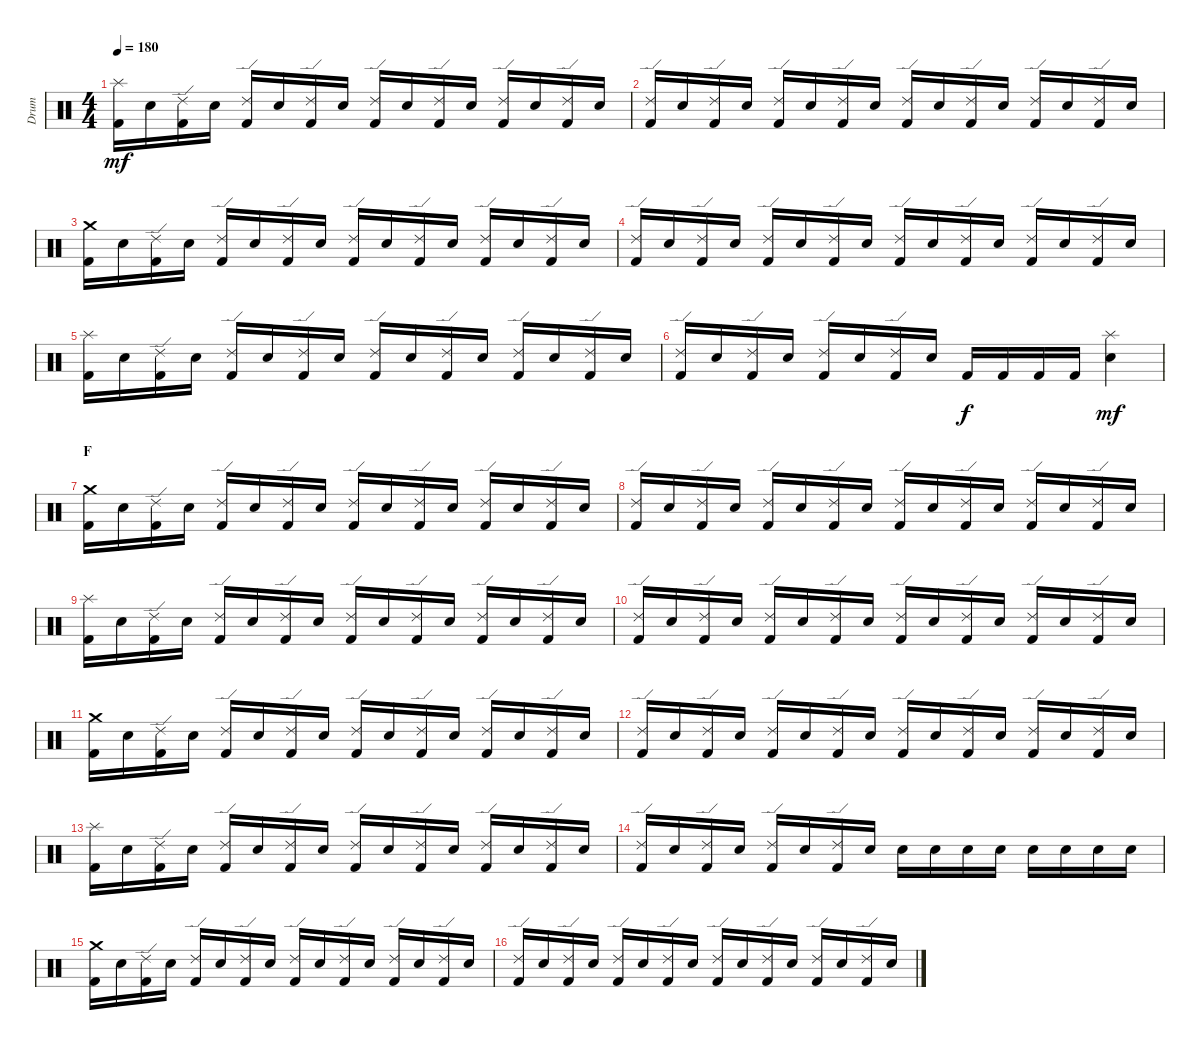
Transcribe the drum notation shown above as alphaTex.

\track ("Drum" "Drum") {instrument percussion}
\staff {score}
\articulation defaults
\ts (4 4)
\tempo 180
\clef neutral
\ks c
("Splash (hit)" "Kick (hit) 2").16{dy mf} "Electric Snare (hit)".16 ("Ride (edge) 2" "Kick (hit) 2").16 "Electric Snare (hit)".16 ("Ride (edge) 2" "Kick (hit) 2").16 "Electric Snare (hit)".16 ("Ride (edge) 2" "Kick (hit) 2").16 "Electric Snare (hit)".16 ("Ride (edge) 2" "Kick (hit) 2").16 "Electric Snare (hit)".16 ("Ride (edge) 2" "Kick (hit) 2").16 "Electric Snare (hit)".16 ("Ride (edge) 2" "Kick (hit) 2").16 "Electric Snare (hit)".16 ("Ride (edge) 2" "Kick (hit) 2").16 "Electric Snare (hit)".16 |
("Ride (edge) 2" "Kick (hit) 2").16 "Electric Snare (hit)".16 ("Ride (edge) 2" "Kick (hit) 2").16 "Electric Snare (hit)".16 ("Ride (edge) 2" "Kick (hit) 2").16 "Electric Snare (hit)".16 ("Ride (edge) 2" "Kick (hit) 2").16 "Electric Snare (hit)".16 ("Ride (edge) 2" "Kick (hit) 2").16 "Electric Snare (hit)".16 ("Ride (edge) 2" "Kick (hit) 2").16 "Electric Snare (hit)".16 ("Ride (edge) 2" "Kick (hit) 2").16 "Electric Snare (hit)".16 ("Ride (edge) 2" "Kick (hit) 2").16 "Electric Snare (hit)".16 |
("Crash medium (hit)" "Kick (hit) 2").16 "Electric Snare (hit)".16 ("Ride (edge) 2" "Kick (hit) 2").16 "Electric Snare (hit)".16 ("Ride (edge) 2" "Kick (hit) 2").16 "Electric Snare (hit)".16 ("Ride (edge) 2" "Kick (hit) 2").16 "Electric Snare (hit)".16 ("Ride (edge) 2" "Kick (hit) 2").16 "Electric Snare (hit)".16 ("Ride (edge) 2" "Kick (hit) 2").16 "Electric Snare (hit)".16 ("Ride (edge) 2" "Kick (hit) 2").16 "Electric Snare (hit)".16 ("Ride (edge) 2" "Kick (hit) 2").16 "Electric Snare (hit)".16 |
("Ride (edge) 2" "Kick (hit) 2").16 "Electric Snare (hit)".16 ("Ride (edge) 2" "Kick (hit) 2").16 "Electric Snare (hit)".16 ("Ride (edge) 2" "Kick (hit) 2").16 "Electric Snare (hit)".16 ("Ride (edge) 2" "Kick (hit) 2").16 "Electric Snare (hit)".16 ("Ride (edge) 2" "Kick (hit) 2").16 "Electric Snare (hit)".16 ("Ride (edge) 2" "Kick (hit) 2").16 "Electric Snare (hit)".16 ("Ride (edge) 2" "Kick (hit) 2").16 "Electric Snare (hit)".16 ("Ride (edge) 2" "Kick (hit) 2").16 "Electric Snare (hit)".16 |
("Splash (hit)" "Kick (hit) 2").16 "Electric Snare (hit)".16 ("Ride (edge) 2" "Kick (hit) 2").16 "Electric Snare (hit)".16 ("Ride (edge) 2" "Kick (hit) 2").16 "Electric Snare (hit)".16 ("Ride (edge) 2" "Kick (hit) 2").16 "Electric Snare (hit)".16 ("Ride (edge) 2" "Kick (hit) 2").16 "Electric Snare (hit)".16 ("Ride (edge) 2" "Kick (hit) 2").16 "Electric Snare (hit)".16 ("Ride (edge) 2" "Kick (hit) 2").16 "Electric Snare (hit)".16 ("Ride (edge) 2" "Kick (hit) 2").16 "Electric Snare (hit)".16 |
("Ride (edge) 2" "Kick (hit) 2").16 "Electric Snare (hit)".16 ("Ride (edge) 2" "Kick (hit) 2").16 "Electric Snare (hit)".16 ("Ride (edge) 2" "Kick (hit) 2").16 "Electric Snare (hit)".16 ("Ride (edge) 2" "Kick (hit) 2").16 "Electric Snare (hit)".16 "Kick (hit) 2".16{dy f} "Kick (hit) 2".16 "Kick (hit) 2".16 "Kick (hit) 2".16 ("Splash (hit)" "Electric Snare (hit)").4{dy mf} |
\section ("" "F")
("Crash medium (hit)" "Kick (hit) 2").16 "Electric Snare (hit)".16 ("Ride (edge) 2" "Kick (hit) 2").16 "Electric Snare (hit)".16 ("Ride (edge) 2" "Kick (hit) 2").16 "Electric Snare (hit)".16 ("Ride (edge) 2" "Kick (hit) 2").16 "Electric Snare (hit)".16 ("Ride (edge) 2" "Kick (hit) 2").16 "Electric Snare (hit)".16 ("Ride (edge) 2" "Kick (hit) 2").16 "Electric Snare (hit)".16 ("Ride (edge) 2" "Kick (hit) 2").16 "Electric Snare (hit)".16 ("Ride (edge) 2" "Kick (hit) 2").16 "Electric Snare (hit)".16 |
("Ride (edge) 2" "Kick (hit) 2").16 "Electric Snare (hit)".16 ("Ride (edge) 2" "Kick (hit) 2").16 "Electric Snare (hit)".16 ("Ride (edge) 2" "Kick (hit) 2").16 "Electric Snare (hit)".16 ("Ride (edge) 2" "Kick (hit) 2").16 "Electric Snare (hit)".16 ("Ride (edge) 2" "Kick (hit) 2").16 "Electric Snare (hit)".16 ("Ride (edge) 2" "Kick (hit) 2").16 "Electric Snare (hit)".16 ("Ride (edge) 2" "Kick (hit) 2").16 "Electric Snare (hit)".16 ("Ride (edge) 2" "Kick (hit) 2").16 "Electric Snare (hit)".16 |
("Splash (hit)" "Kick (hit) 2").16 "Electric Snare (hit)".16 ("Ride (edge) 2" "Kick (hit) 2").16 "Electric Snare (hit)".16 ("Ride (edge) 2" "Kick (hit) 2").16 "Electric Snare (hit)".16 ("Ride (edge) 2" "Kick (hit) 2").16 "Electric Snare (hit)".16 ("Ride (edge) 2" "Kick (hit) 2").16 "Electric Snare (hit)".16 ("Ride (edge) 2" "Kick (hit) 2").16 "Electric Snare (hit)".16 ("Ride (edge) 2" "Kick (hit) 2").16 "Electric Snare (hit)".16 ("Ride (edge) 2" "Kick (hit) 2").16 "Electric Snare (hit)".16 |
("Ride (edge) 2" "Kick (hit) 2").16 "Electric Snare (hit)".16 ("Ride (edge) 2" "Kick (hit) 2").16 "Electric Snare (hit)".16 ("Ride (edge) 2" "Kick (hit) 2").16 "Electric Snare (hit)".16 ("Ride (edge) 2" "Kick (hit) 2").16 "Electric Snare (hit)".16 ("Ride (edge) 2" "Kick (hit) 2").16 "Electric Snare (hit)".16 ("Ride (edge) 2" "Kick (hit) 2").16 "Electric Snare (hit)".16 ("Ride (edge) 2" "Kick (hit) 2").16 "Electric Snare (hit)".16 ("Ride (edge) 2" "Kick (hit) 2").16 "Electric Snare (hit)".16 |
("Crash medium (hit)" "Kick (hit) 2").16 "Electric Snare (hit)".16 ("Ride (edge) 2" "Kick (hit) 2").16 "Electric Snare (hit)".16 ("Ride (edge) 2" "Kick (hit) 2").16 "Electric Snare (hit)".16 ("Ride (edge) 2" "Kick (hit) 2").16 "Electric Snare (hit)".16 ("Ride (edge) 2" "Kick (hit) 2").16 "Electric Snare (hit)".16 ("Ride (edge) 2" "Kick (hit) 2").16 "Electric Snare (hit)".16 ("Ride (edge) 2" "Kick (hit) 2").16 "Electric Snare (hit)".16 ("Ride (edge) 2" "Kick (hit) 2").16 "Electric Snare (hit)".16 |
("Ride (edge) 2" "Kick (hit) 2").16 "Electric Snare (hit)".16 ("Ride (edge) 2" "Kick (hit) 2").16 "Electric Snare (hit)".16 ("Ride (edge) 2" "Kick (hit) 2").16 "Electric Snare (hit)".16 ("Ride (edge) 2" "Kick (hit) 2").16 "Electric Snare (hit)".16 ("Ride (edge) 2" "Kick (hit) 2").16 "Electric Snare (hit)".16 ("Ride (edge) 2" "Kick (hit) 2").16 "Electric Snare (hit)".16 ("Ride (edge) 2" "Kick (hit) 2").16 "Electric Snare (hit)".16 ("Ride (edge) 2" "Kick (hit) 2").16 "Electric Snare (hit)".16 |
("Splash (hit)" "Kick (hit) 2").16 "Electric Snare (hit)".16 ("Ride (edge) 2" "Kick (hit) 2").16 "Electric Snare (hit)".16 ("Ride (edge) 2" "Kick (hit) 2").16 "Electric Snare (hit)".16 ("Ride (edge) 2" "Kick (hit) 2").16 "Electric Snare (hit)".16 ("Ride (edge) 2" "Kick (hit) 2").16 "Electric Snare (hit)".16 ("Ride (edge) 2" "Kick (hit) 2").16 "Electric Snare (hit)".16 ("Ride (edge) 2" "Kick (hit) 2").16 "Electric Snare (hit)".16 ("Ride (edge) 2" "Kick (hit) 2").16 "Electric Snare (hit)".16 |
("Ride (edge) 2" "Kick (hit) 2").16 "Electric Snare (hit)".16 ("Ride (edge) 2" "Kick (hit) 2").16 "Electric Snare (hit)".16 ("Ride (edge) 2" "Kick (hit) 2").16 "Electric Snare (hit)".16 ("Ride (edge) 2" "Kick (hit) 2").16 "Electric Snare (hit)".16 "Electric Snare (hit)".16 "Electric Snare (hit)".16 "Electric Snare (hit)".16 "Electric Snare (hit)".16 "Electric Snare (hit)".16 "Electric Snare (hit)".16 "Electric Snare (hit)".16 "Electric Snare (hit)".16 |
("Crash medium (hit)" "Kick (hit) 2").16 "Electric Snare (hit)".16 ("Ride (edge) 2" "Kick (hit) 2").16 "Electric Snare (hit)".16 ("Ride (edge) 2" "Kick (hit) 2").16 "Electric Snare (hit)".16 ("Ride (edge) 2" "Kick (hit) 2").16 "Electric Snare (hit)".16 ("Ride (edge) 2" "Kick (hit) 2").16 "Electric Snare (hit)".16 ("Ride (edge) 2" "Kick (hit) 2").16 "Electric Snare (hit)".16 ("Ride (edge) 2" "Kick (hit) 2").16 "Electric Snare (hit)".16 ("Ride (edge) 2" "Kick (hit) 2").16 "Electric Snare (hit)".16 |
("Ride (edge) 2" "Kick (hit) 2").16 "Electric Snare (hit)".16 ("Ride (edge) 2" "Kick (hit) 2").16 "Electric Snare (hit)".16 ("Ride (edge) 2" "Kick (hit) 2").16 "Electric Snare (hit)".16 ("Ride (edge) 2" "Kick (hit) 2").16 "Electric Snare (hit)".16 ("Ride (edge) 2" "Kick (hit) 2").16 "Electric Snare (hit)".16 ("Ride (edge) 2" "Kick (hit) 2").16 "Electric Snare (hit)".16 ("Ride (edge) 2" "Kick (hit) 2").16 "Electric Snare (hit)".16 ("Ride (edge) 2" "Kick (hit) 2").16 "Electric Snare (hit)".16
